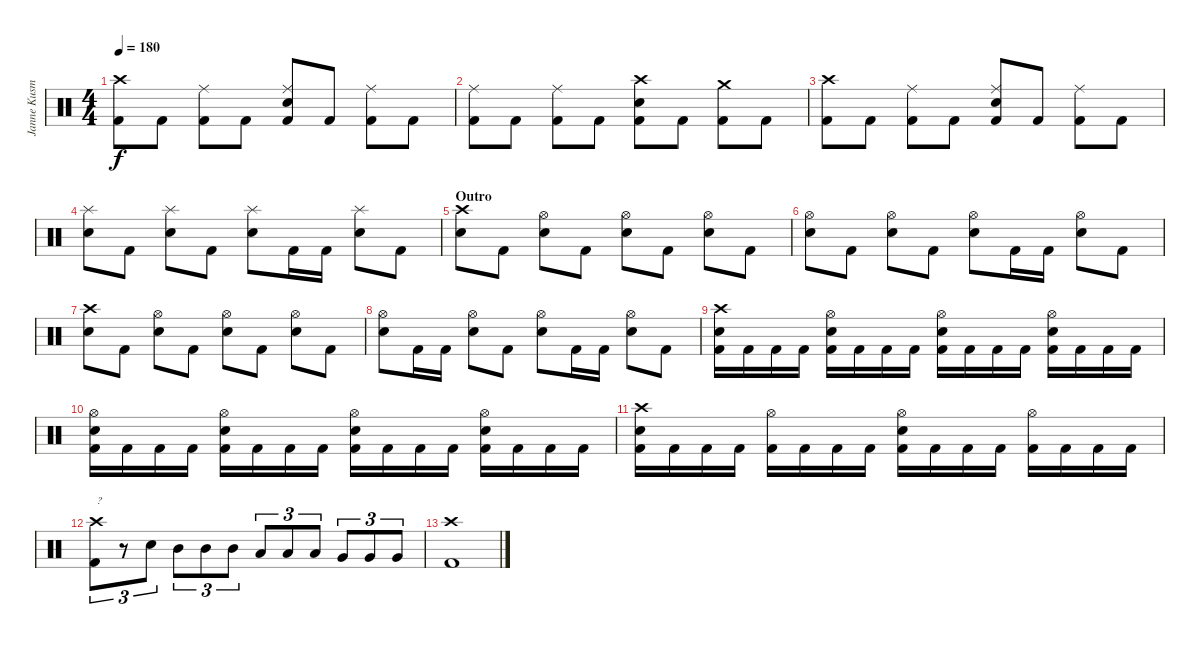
\track ("Janne Kusmin - Drums" "Janne Kusm") {instrument percussion}
\staff {score}
\articulation defaults
\ts (4 4)
\tempo 180
\clef neutral
\ks c
("Crash high (hit)" "Kick (hit) 2").8{dy f} "Kick (hit) 2".8 ("Ride (middle)" "Kick (hit) 2").8 "Kick (hit) 2".8 ("Ride (middle)" "Electric Snare (hit)" "Kick (hit) 2").8 "Kick (hit) 2".8 ("Ride (middle)" "Kick (hit) 2").8 "Kick (hit) 2".8 |
("Ride (middle)" "Kick (hit) 2").8 "Kick (hit) 2".8 ("Ride (middle)" "Kick (hit) 2").8 "Kick (hit) 2".8 ("Crash high (hit)" "Electric Snare (hit)" "Kick (hit) 2").8 "Kick (hit) 2".8 ("Crash medium (hit)" "Kick (hit) 2").8 "Kick (hit) 2".8 |
("Crash high (hit)" "Kick (hit) 2").8 "Kick (hit) 2".8 ("Ride (middle)" "Kick (hit) 2").8 "Kick (hit) 2".8 ("Ride (middle)" "Electric Snare (hit)" "Kick (hit) 2").8 "Kick (hit) 2".8 ("Ride (middle)" "Kick (hit) 2").8 "Kick (hit) 2".8 |
("Splash (hit)" "Electric Snare (hit)").8 "Kick (hit) 2".8 ("Splash (hit)" "Electric Snare (hit)").8 "Kick (hit) 2".8 ("Splash (hit)" "Electric Snare (hit)").8 "Kick (hit) 2".16 "Kick (hit) 2".16 ("Splash (hit)" "Electric Snare (hit)").8 "Kick (hit) 2".8 |
\section ("" "Outro")
("Crash high (hit)" "Electric Snare (hit)").8 "Kick (hit) 2".8 ("Hi-Hat (open)" "Electric Snare (hit)").8 "Kick (hit) 2".8 ("Hi-Hat (open)" "Electric Snare (hit)").8 "Kick (hit) 2".8 ("Hi-Hat (open)" "Electric Snare (hit)").8 "Kick (hit) 2".8 |
("Hi-Hat (open)" "Electric Snare (hit)").8 "Kick (hit) 2".8 ("Hi-Hat (open)" "Electric Snare (hit)").8 "Kick (hit) 2".8 ("Hi-Hat (open)" "Electric Snare (hit)").8 "Kick (hit) 2".16 "Kick (hit) 2".16 ("Hi-Hat (open)" "Electric Snare (hit)").8 "Kick (hit) 2".8 |
("Crash high (hit)" "Electric Snare (hit)").8 "Kick (hit) 2".8 ("Hi-Hat (open)" "Electric Snare (hit)").8 "Kick (hit) 2".8 ("Hi-Hat (open)" "Electric Snare (hit)").8 "Kick (hit) 2".8 ("Hi-Hat (open)" "Electric Snare (hit)").8 "Kick (hit) 2".8 |
("Hi-Hat (open)" "Electric Snare (hit)").8 "Kick (hit) 2".16 "Kick (hit) 2".16 ("Hi-Hat (open)" "Electric Snare (hit)").8 "Kick (hit) 2".8 ("Hi-Hat (open)" "Electric Snare (hit)").8 "Kick (hit) 2".16 "Kick (hit) 2".16 ("Hi-Hat (open)" "Electric Snare (hit)").8 "Kick (hit) 2".8 |
("Crash high (hit)" "Electric Snare (hit)" "Kick (hit) 2").16 "Kick (hit) 2".16 "Kick (hit) 2".16 "Kick (hit) 2".16 ("Hi-Hat (open)" "Electric Snare (hit)" "Kick (hit) 2").16 "Kick (hit) 2".16 "Kick (hit) 2".16 "Kick (hit) 2".16 ("Hi-Hat (open)" "Electric Snare (hit)" "Kick (hit) 2").16 "Kick (hit) 2".16 "Kick (hit) 2".16 "Kick (hit) 2".16 ("Hi-Hat (open)" "Electric Snare (hit)" "Kick (hit) 2").16 "Kick (hit) 2".16 "Kick (hit) 2".16 "Kick (hit) 2".16 |
("Hi-Hat (open)" "Electric Snare (hit)" "Kick (hit) 2").16 "Kick (hit) 2".16 "Kick (hit) 2".16 "Kick (hit) 2".16 ("Hi-Hat (open)" "Electric Snare (hit)" "Kick (hit) 2").16 "Kick (hit) 2".16 "Kick (hit) 2".16 "Kick (hit) 2".16 ("Hi-Hat (open)" "Electric Snare (hit)" "Kick (hit) 2").16 "Kick (hit) 2".16 "Kick (hit) 2".16 "Kick (hit) 2".16 ("Hi-Hat (open)" "Electric Snare (hit)" "Kick (hit) 2").16 "Kick (hit) 2".16 "Kick (hit) 2".16 "Kick (hit) 2".16 |
("Crash high (hit)" "Electric Snare (hit)" "Kick (hit) 2").16 "Kick (hit) 2".16 "Kick (hit) 2".16 "Kick (hit) 2".16 ("Hi-Hat (open)" "Kick (hit) 2").16 "Kick (hit) 2".16 "Kick (hit) 2".16 "Kick (hit) 2".16 ("Hi-Hat (open)" "Electric Snare (hit)" "Kick (hit) 2").16 "Kick (hit) 2".16 "Kick (hit) 2".16 "Kick (hit) 2".16 ("Hi-Hat (open)" "Kick (hit) 2").16 "Kick (hit) 2".16 "Kick (hit) 2".16 "Kick (hit) 2".16 |
("Crash high (hit)" "Kick (hit) 2").8{tu (3 2) txt "?"} r.8{tu (3 2)} "Electric Snare (hit)".8{tu (3 2)} "Mid Tom (hit)".8{tu (3 2)} "Mid Tom (hit)".8{tu (3 2)} "Mid Tom (hit)".8{tu (3 2)} "Low Tom (hit)".8{tu (3 2)} "Low Tom (hit)".8{tu (3 2)} "Low Tom (hit)".8{tu (3 2)} "Very Low Tom (hit)".8{tu (3 2)} "Very Low Tom (hit)".8{tu (3 2)} "Very Low Tom (hit)".8{tu (3 2)} |
("Crash high (hit)" "Kick (hit) 2").1
